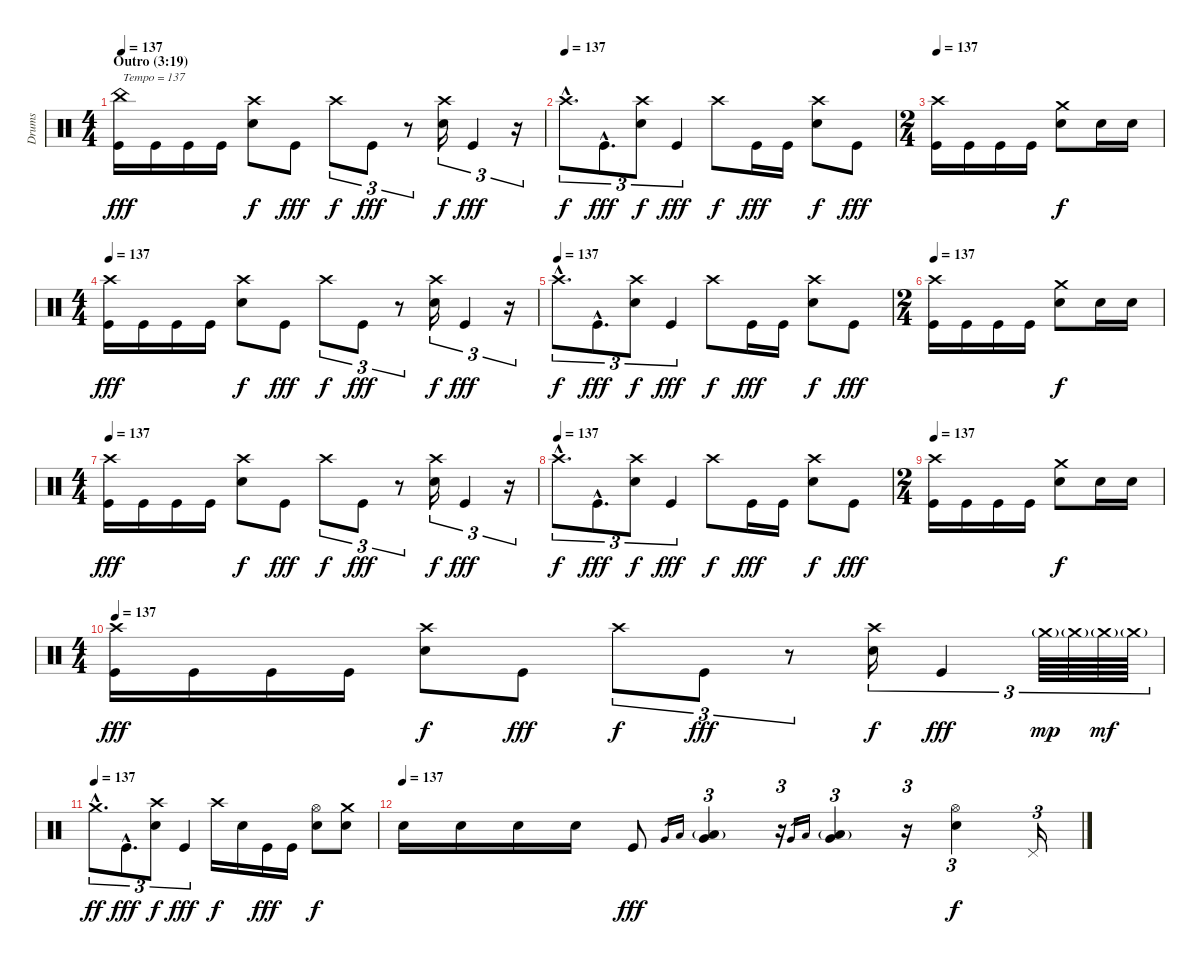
\track ("Drums" "Drums") {instrument percussion}
\staff {score}
\articulation defaults
\ts (4 4)
\section ("" "Outro (3:19)")
\tempo 137
\clef neutral
\ks c
("China (hit)" "Kick (hit)").16{txt "Tempo = 137" dy fff} "Kick (hit)".16 "Kick (hit)".16 "Kick (hit)".16 ("Crash high (hit)" "Snare (hit) 2").8{dy f} "Kick (hit)".8{dy fff} "Crash high (hit)".8{tu (3 2) dy f} "Kick (hit)".8{tu (3 2) dy fff} r.8{tu (3 2)} ("Crash high (hit)" "Snare (hit) 2").16{tu (3 2) dy f} "Kick (hit)".4{tu (3 2) dy fff} r.16{tu (3 2)} |
\tempo (137)
"Crash high (hit)"{hac}.8{d tu (3 2) dy f} "Kick (hit)"{hac}.8{d tu (3 2) dy fff} ("Crash high (hit)" "Snare (hit) 2").8{tu (3 2) dy f} "Kick (hit)".4{tu (3 2) dy fff} "Crash high (hit)".8{dy f} "Kick (hit)".16{dy fff} "Kick (hit)".16 ("Crash high (hit)" "Snare (hit) 2").8{dy f} "Kick (hit)".8{dy fff} |
\ts (2 4)
\tempo 137
("Crash high (hit)" "Kick (hit)").16 "Kick (hit)".16 "Kick (hit)".16 "Kick (hit)".16 ("Crash medium (hit)" "Snare (hit) 2").8{dy f} "Snare (hit) 2".16 "Snare (hit) 2".16 |
\ts (4 4)
\tempo 137
("Crash high (hit)" "Kick (hit)").16{dy fff} "Kick (hit)".16 "Kick (hit)".16 "Kick (hit)".16 ("Crash high (hit)" "Snare (hit) 2").8{dy f} "Kick (hit)".8{dy fff} "Crash high (hit)".8{tu (3 2) dy f} "Kick (hit)".8{tu (3 2) dy fff} r.8{tu (3 2)} ("Crash high (hit)" "Snare (hit) 2").16{tu (3 2) dy f} "Kick (hit)".4{tu (3 2) dy fff} r.16{tu (3 2)} |
\tempo (137)
"Crash high (hit)"{hac}.8{d tu (3 2) dy f} "Kick (hit)"{hac}.8{d tu (3 2) dy fff} ("Crash high (hit)" "Snare (hit) 2").8{tu (3 2) dy f} "Kick (hit)".4{tu (3 2) dy fff} "Crash high (hit)".8{dy f} "Kick (hit)".16{dy fff} "Kick (hit)".16 ("Crash high (hit)" "Snare (hit) 2").8{dy f} "Kick (hit)".8{dy fff} |
\ts (2 4)
\tempo 137
("Crash high (hit)" "Kick (hit)").16 "Kick (hit)".16 "Kick (hit)".16 "Kick (hit)".16 ("Crash medium (hit)" "Snare (hit) 2").8{dy f} "Snare (hit) 2".16 "Snare (hit) 2".16 |
\ts (4 4)
\tempo 137
("Crash high (hit)" "Kick (hit)").16{dy fff} "Kick (hit)".16 "Kick (hit)".16 "Kick (hit)".16 ("Crash high (hit)" "Snare (hit) 2").8{dy f} "Kick (hit)".8{dy fff} "Crash high (hit)".8{tu (3 2) dy f} "Kick (hit)".8{tu (3 2) dy fff} r.8{tu (3 2)} ("Crash high (hit)" "Snare (hit) 2").16{tu (3 2) dy f} "Kick (hit)".4{tu (3 2) dy fff} r.16{tu (3 2)} |
\tempo (137)
"Crash high (hit)"{hac}.8{d tu (3 2) dy f} "Kick (hit)"{hac}.8{d tu (3 2) dy fff} ("Crash high (hit)" "Snare (hit) 2").8{tu (3 2) dy f} "Kick (hit)".4{tu (3 2) dy fff} "Crash high (hit)".8{dy f} "Kick (hit)".16{dy fff} "Kick (hit)".16 ("Crash high (hit)" "Snare (hit) 2").8{dy f} "Kick (hit)".8{dy fff} |
\ts (2 4)
\tempo 137
("Crash high (hit)" "Kick (hit)").16 "Kick (hit)".16 "Kick (hit)".16 "Kick (hit)".16 ("Crash medium (hit)" "Snare (hit) 2").8{dy f} "Snare (hit) 2".16 "Snare (hit) 2".16 |
\ts (4 4)
\tempo 137
("Crash high (hit)" "Kick (hit)").16{dy fff} "Kick (hit)".16 "Kick (hit)".16 "Kick (hit)".16 ("Crash high (hit)" "Snare (hit) 2").8{dy f} "Kick (hit)".8{dy fff} "Crash high (hit)".8{tu (3 2) dy f} "Kick (hit)".8{tu (3 2) dy fff} r.8{tu (3 2)} ("Crash high (hit)" "Snare (hit) 2").16{tu (3 2) dy f} "Kick (hit)".4{tu (3 2) dy fff} "Crash medium (hit)"{g}.64{tu (3 2) dy mp} "Crash medium (hit)"{g}.64{tu (3 2)} "Crash medium (hit)"{g}.64{tu (3 2) dy mf} "Crash medium (hit)"{g}.64{tu (3 2)} |
\tempo (137)
"Crash medium (hit)"{hac}.8{d tu (3 2) dy ff} "Kick (hit)"{hac}.8{d tu (3 2) dy fff} ("Crash high (hit)" "Snare (hit) 2").8{tu (3 2) dy f} "Kick (hit)".4{tu (3 2) dy fff} "Crash high (hit)".16{dy f} "Snare (hit) 2".16 "Kick (hit)".16{dy fff} "Kick (hit)".16 ("Hi-Hat (open)" "Snare (hit) 2").8{dy f} ("Crash medium (hit)" "Snare (hit) 2").8 |
\tempo (137)
"Snare (hit) 2".16 "Snare (hit) 2".16 "Snare (hit) 2".16 "Snare (hit) 2".16 "Kick (hit)".8{dy fff} "Very Low Tom (hit)".16{gr} "Low Floor Tom (hit)".16{gr} ("Very Low Tom (hit)" "Low Floor Tom (hit)"{g}).4{tu (3 2)} r.16{tu (3 2)} "Very Low Tom (hit)".16{gr} "Low Floor Tom (hit)".16{gr} ("Very Low Tom (hit)" "Low Floor Tom (hit)"{g}).4{tu (3 2)} r.16{tu (3 2)} ("Hi-Hat (open)" "Snare (hit) 2").4{tu (3 2) dy f} "Pedal Hi-Hat (hit)".16{tu (3 2)}
